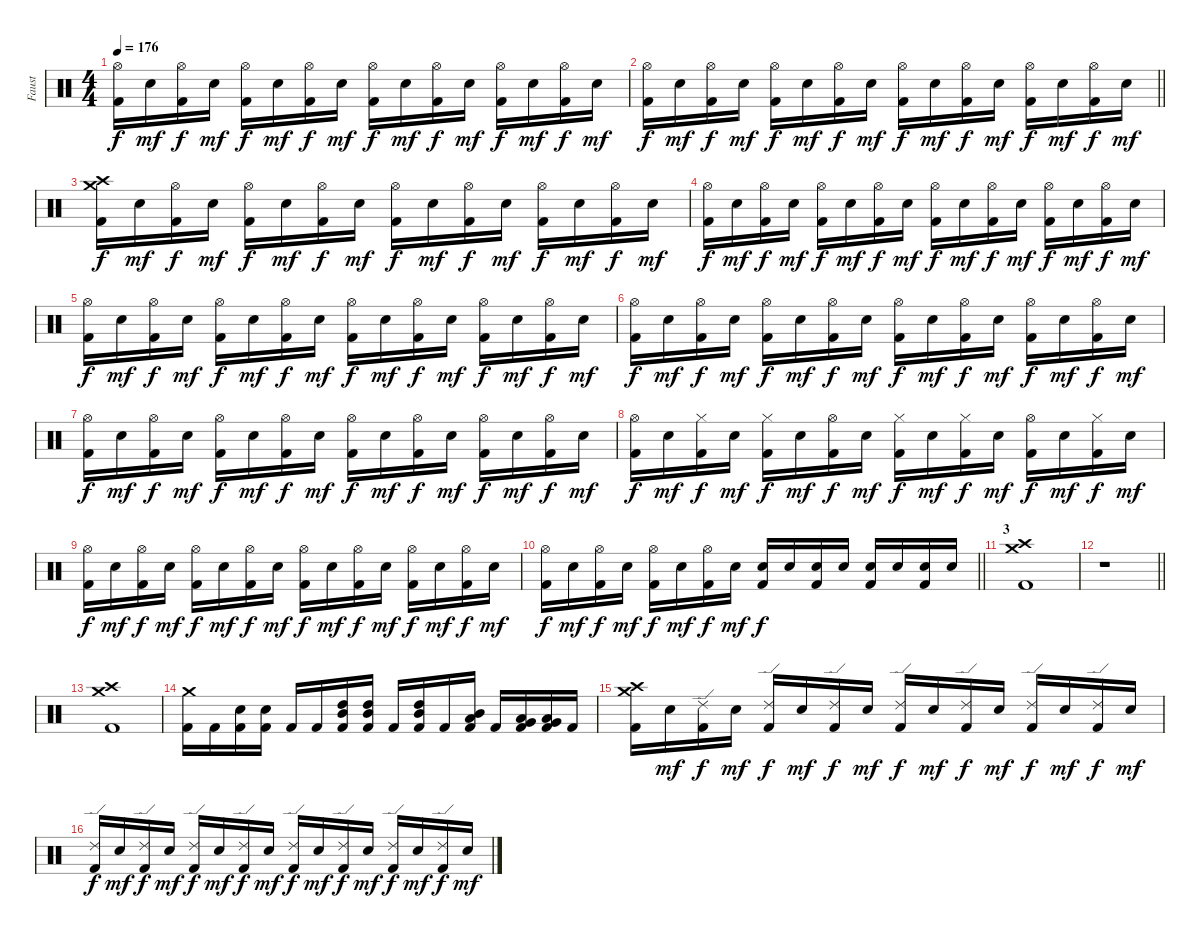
\track ("Faust" "Faust") {instrument percussion}
\staff {score}
\articulation defaults
\ts (4 4)
\tempo 176
\clef neutral
\ks c
("Hi-Hat (open)" "Kick (hit) 2").16{dy f} "Electric Snare (hit)".16{dy mf} ("Hi-Hat (open)" "Kick (hit) 2").16{dy f} "Electric Snare (hit)".16{dy mf} ("Hi-Hat (open)" "Kick (hit) 2").16{dy f} "Electric Snare (hit)".16{dy mf} ("Hi-Hat (open)" "Kick (hit) 2").16{dy f} "Electric Snare (hit)".16{dy mf} ("Hi-Hat (open)" "Kick (hit) 2").16{dy f} "Electric Snare (hit)".16{dy mf} ("Hi-Hat (open)" "Kick (hit) 2").16{dy f} "Electric Snare (hit)".16{dy mf} ("Hi-Hat (open)" "Kick (hit) 2").16{dy f} "Electric Snare (hit)".16{dy mf} ("Hi-Hat (open)" "Kick (hit) 2").16{dy f} "Electric Snare (hit)".16{dy mf} |
\barLineRight lightlight
("Hi-Hat (open)" "Kick (hit) 2").16{dy f} "Electric Snare (hit)".16{dy mf} ("Hi-Hat (open)" "Kick (hit) 2").16{dy f} "Electric Snare (hit)".16{dy mf} ("Hi-Hat (open)" "Kick (hit) 2").16{dy f} "Electric Snare (hit)".16{dy mf} ("Hi-Hat (open)" "Kick (hit) 2").16{dy f} "Electric Snare (hit)".16{dy mf} ("Hi-Hat (open)" "Kick (hit) 2").16{dy f} "Electric Snare (hit)".16{dy mf} ("Hi-Hat (open)" "Kick (hit) 2").16{dy f} "Electric Snare (hit)".16{dy mf} ("Hi-Hat (open)" "Kick (hit) 2").16{dy f} "Electric Snare (hit)".16{dy mf} ("Hi-Hat (open)" "Kick (hit) 2").16{dy f} "Electric Snare (hit)".16{dy mf} |
\section ("" "")
("Crash high (hit)" "Crash medium (hit)" "Kick (hit) 2").16{dy f} "Electric Snare (hit)".16{dy mf} ("Hi-Hat (open)" "Kick (hit) 2").16{dy f} "Electric Snare (hit)".16{dy mf} ("Hi-Hat (open)" "Kick (hit) 2").16{dy f} "Electric Snare (hit)".16{dy mf} ("Hi-Hat (open)" "Kick (hit) 2").16{dy f} "Electric Snare (hit)".16{dy mf} ("Hi-Hat (open)" "Kick (hit) 2").16{dy f} "Electric Snare (hit)".16{dy mf} ("Hi-Hat (open)" "Kick (hit) 2").16{dy f} "Electric Snare (hit)".16{dy mf} ("Hi-Hat (open)" "Kick (hit) 2").16{dy f} "Electric Snare (hit)".16{dy mf} ("Hi-Hat (open)" "Kick (hit) 2").16{dy f} "Electric Snare (hit)".16{dy mf} |
("Hi-Hat (open)" "Kick (hit) 2").16{dy f} "Electric Snare (hit)".16{dy mf} ("Hi-Hat (open)" "Kick (hit) 2").16{dy f} "Electric Snare (hit)".16{dy mf} ("Hi-Hat (open)" "Kick (hit) 2").16{dy f} "Electric Snare (hit)".16{dy mf} ("Hi-Hat (open)" "Kick (hit) 2").16{dy f} "Electric Snare (hit)".16{dy mf} ("Hi-Hat (open)" "Kick (hit) 2").16{dy f} "Electric Snare (hit)".16{dy mf} ("Hi-Hat (open)" "Kick (hit) 2").16{dy f} "Electric Snare (hit)".16{dy mf} ("Hi-Hat (open)" "Kick (hit) 2").16{dy f} "Electric Snare (hit)".16{dy mf} ("Hi-Hat (open)" "Kick (hit) 2").16{dy f} "Electric Snare (hit)".16{dy mf} |
("Hi-Hat (open)" "Kick (hit) 2").16{dy f} "Electric Snare (hit)".16{dy mf} ("Hi-Hat (open)" "Kick (hit) 2").16{dy f} "Electric Snare (hit)".16{dy mf} ("Hi-Hat (open)" "Kick (hit) 2").16{dy f} "Electric Snare (hit)".16{dy mf} ("Hi-Hat (open)" "Kick (hit) 2").16{dy f} "Electric Snare (hit)".16{dy mf} ("Hi-Hat (open)" "Kick (hit) 2").16{dy f} "Electric Snare (hit)".16{dy mf} ("Hi-Hat (open)" "Kick (hit) 2").16{dy f} "Electric Snare (hit)".16{dy mf} ("Hi-Hat (open)" "Kick (hit) 2").16{dy f} "Electric Snare (hit)".16{dy mf} ("Hi-Hat (open)" "Kick (hit) 2").16{dy f} "Electric Snare (hit)".16{dy mf} |
("Hi-Hat (open)" "Kick (hit) 2").16{dy f} "Electric Snare (hit)".16{dy mf} ("Hi-Hat (open)" "Kick (hit) 2").16{dy f} "Electric Snare (hit)".16{dy mf} ("Hi-Hat (open)" "Kick (hit) 2").16{dy f} "Electric Snare (hit)".16{dy mf} ("Hi-Hat (open)" "Kick (hit) 2").16{dy f} "Electric Snare (hit)".16{dy mf} ("Hi-Hat (open)" "Kick (hit) 2").16{dy f} "Electric Snare (hit)".16{dy mf} ("Hi-Hat (open)" "Kick (hit) 2").16{dy f} "Electric Snare (hit)".16{dy mf} ("Hi-Hat (open)" "Kick (hit) 2").16{dy f} "Electric Snare (hit)".16{dy mf} ("Hi-Hat (open)" "Kick (hit) 2").16{dy f} "Electric Snare (hit)".16{dy mf} |
("Hi-Hat (open)" "Kick (hit) 2").16{dy f} "Electric Snare (hit)".16{dy mf} ("Hi-Hat (open)" "Kick (hit) 2").16{dy f} "Electric Snare (hit)".16{dy mf} ("Hi-Hat (open)" "Kick (hit) 2").16{dy f} "Electric Snare (hit)".16{dy mf} ("Hi-Hat (open)" "Kick (hit) 2").16{dy f} "Electric Snare (hit)".16{dy mf} ("Hi-Hat (open)" "Kick (hit) 2").16{dy f} "Electric Snare (hit)".16{dy mf} ("Hi-Hat (open)" "Kick (hit) 2").16{dy f} "Electric Snare (hit)".16{dy mf} ("Hi-Hat (open)" "Kick (hit) 2").16{dy f} "Electric Snare (hit)".16{dy mf} ("Hi-Hat (open)" "Kick (hit) 2").16{dy f} "Electric Snare (hit)".16{dy mf} |
("Hi-Hat (open)" "Kick (hit) 2").16{dy f} "Electric Snare (hit)".16{dy mf} ("Hi-Hat (closed)" "Kick (hit) 2").16{dy f} "Electric Snare (hit)".16{dy mf} ("Hi-Hat (closed)" "Kick (hit) 2").16{dy f} "Electric Snare (hit)".16{dy mf} ("Hi-Hat (open)" "Kick (hit) 2").16{dy f} "Electric Snare (hit)".16{dy mf} ("Hi-Hat (closed)" "Kick (hit) 2").16{dy f} "Electric Snare (hit)".16{dy mf} ("Hi-Hat (closed)" "Kick (hit) 2").16{dy f} "Electric Snare (hit)".16{dy mf} ("Hi-Hat (open)" "Kick (hit) 2").16{dy f} "Electric Snare (hit)".16{dy mf} ("Hi-Hat (closed)" "Kick (hit) 2").16{dy f} "Electric Snare (hit)".16{dy mf} |
("Hi-Hat (open)" "Kick (hit) 2").16{dy f} "Electric Snare (hit)".16{dy mf} ("Hi-Hat (open)" "Kick (hit) 2").16{dy f} "Electric Snare (hit)".16{dy mf} ("Hi-Hat (open)" "Kick (hit) 2").16{dy f} "Electric Snare (hit)".16{dy mf} ("Hi-Hat (open)" "Kick (hit) 2").16{dy f} "Electric Snare (hit)".16{dy mf} ("Hi-Hat (open)" "Kick (hit) 2").16{dy f} "Electric Snare (hit)".16{dy mf} ("Hi-Hat (open)" "Kick (hit) 2").16{dy f} "Electric Snare (hit)".16{dy mf} ("Hi-Hat (open)" "Kick (hit) 2").16{dy f} "Electric Snare (hit)".16{dy mf} ("Hi-Hat (open)" "Kick (hit) 2").16{dy f} "Electric Snare (hit)".16{dy mf} |
\barLineRight lightlight
("Hi-Hat (open)" "Kick (hit) 2").16{dy f} "Electric Snare (hit)".16{dy mf} ("Hi-Hat (open)" "Kick (hit) 2").16{dy f} "Electric Snare (hit)".16{dy mf} ("Hi-Hat (open)" "Kick (hit) 2").16{dy f} "Electric Snare (hit)".16{dy mf} ("Hi-Hat (open)" "Kick (hit) 2").16{dy f} "Electric Snare (hit)".16{dy mf} ("Electric Snare (hit)" "Kick (hit) 2").16{dy f} "Electric Snare (hit)".16 ("Electric Snare (hit)" "Kick (hit) 2").16 "Electric Snare (hit)".16 ("Electric Snare (hit)" "Kick (hit) 2").16 "Electric Snare (hit)".16 ("Electric Snare (hit)" "Kick (hit) 2").16 "Electric Snare (hit)".16 |
\section ("" "3")
("Crash medium (hit)" "Crash high (hit)" "Kick (hit) 2").1 |
\barLineRight lightlight
r.1 |
\section ("" "")
("Crash medium (hit)" "Crash high (hit)" "Kick (hit) 2").1 |
("Crash medium (hit)" "Kick (hit) 2").16 "Kick (hit) 2".16 ("Electric Snare (hit)" "Kick (hit) 2").16 ("Electric Snare (hit)" "Kick (hit) 2").16 "Kick (hit) 2".16 "Kick (hit) 2".16 ("High Tom (hit)" "Mid Tom (hit)" "Kick (hit) 2").16 ("High Tom (hit)" "Mid Tom (hit)" "Kick (hit) 2").16 "Kick (hit) 2".16 ("High Tom (hit)" "Mid Tom (hit)" "Kick (hit) 2").16 "Kick (hit) 2".16 ("Mid Tom (hit)" "Low Tom (hit)" "Kick (hit) 2").16 "Kick (hit) 2".16 ("Low Tom (hit)" "Very Low Tom (hit)" "Kick (hit) 2").16 ("Very Low Tom (hit)" "Low Floor Tom (hit)" "Kick (hit) 2").16 "Kick (hit) 2".16 |
("Crash high (hit)" "Crash medium (hit)" "Kick (hit) 2").16 "Electric Snare (hit)".16{dy mf} ("Ride (edge) 2" "Kick (hit) 2").16{dy f} "Electric Snare (hit)".16{dy mf} ("Ride (edge) 2" "Kick (hit) 2").16{dy f} "Electric Snare (hit)".16{dy mf} ("Ride (edge) 2" "Kick (hit) 2").16{dy f} "Electric Snare (hit)".16{dy mf} ("Ride (edge) 2" "Kick (hit) 2").16{dy f} "Electric Snare (hit)".16{dy mf} ("Ride (edge) 2" "Kick (hit) 2").16{dy f} "Electric Snare (hit)".16{dy mf} ("Ride (edge) 2" "Kick (hit) 2").16{dy f} "Electric Snare (hit)".16{dy mf} ("Ride (edge) 2" "Kick (hit) 2").16{dy f} "Electric Snare (hit)".16{dy mf} |
("Ride (edge) 2" "Kick (hit) 2").16{dy f} "Electric Snare (hit)".16{dy mf} ("Ride (edge) 2" "Kick (hit) 2").16{dy f} "Electric Snare (hit)".16{dy mf} ("Ride (edge) 2" "Kick (hit) 2").16{dy f} "Electric Snare (hit)".16{dy mf} ("Ride (edge) 2" "Kick (hit) 2").16{dy f} "Electric Snare (hit)".16{dy mf} ("Ride (edge) 2" "Kick (hit) 2").16{dy f} "Electric Snare (hit)".16{dy mf} ("Ride (edge) 2" "Kick (hit) 2").16{dy f} "Electric Snare (hit)".16{dy mf} ("Ride (edge) 2" "Kick (hit) 2").16{dy f} "Electric Snare (hit)".16{dy mf} ("Ride (edge) 2" "Kick (hit) 2").16{dy f} "Electric Snare (hit)".16{dy mf}
